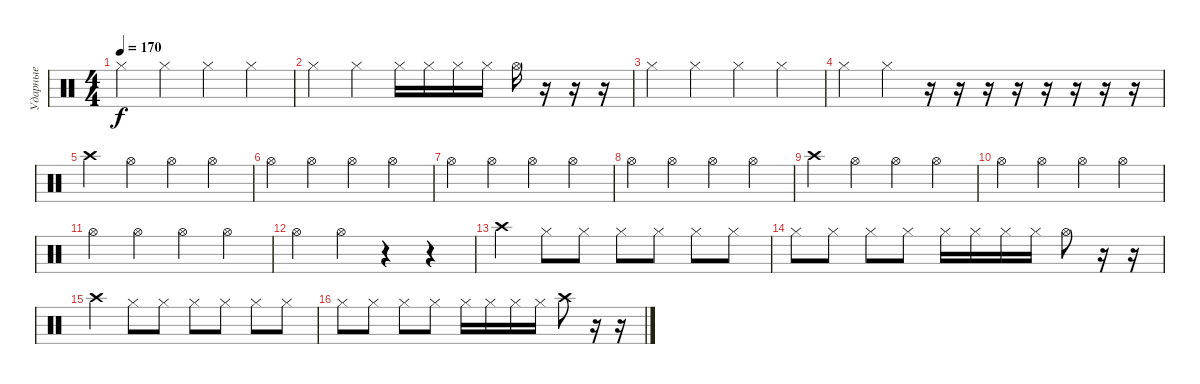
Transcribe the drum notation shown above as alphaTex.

\track ("Ударные" "Ударные") {instrument percussion}
\staff {score}
\articulation defaults
\ts (4 4)
\tempo 170
\clef neutral
\ks c "Hi-Hat (closed)".4{dy f} "Hi-Hat (closed)".4 "Hi-Hat (closed)".4 "Hi-Hat (closed)".4
|
"Hi-Hat (closed)".4 "Hi-Hat (closed)".4 "Hi-Hat (closed)".16 "Hi-Hat (closed)".16 "Hi-Hat (closed)".16 "Hi-Hat (closed)".16 "Hi-Hat (open)".16 r.16 r.16 r.16 |
"Hi-Hat (closed)".4 "Hi-Hat (closed)".4 "Hi-Hat (closed)".4 "Hi-Hat (closed)".4 |
"Hi-Hat (closed)".4 "Hi-Hat (closed)".4 r.16 r.16 r.16 r.16 r.16 r.16 r.16 r.16 |
"Crash high (hit)".4 "Hi-Hat (open)".4 "Hi-Hat (open)".4 "Hi-Hat (open)".4 |
"Hi-Hat (open)".4 "Hi-Hat (open)".4 "Hi-Hat (open)".4 "Hi-Hat (open)".4 |
"Hi-Hat (open)".4 "Hi-Hat (open)".4 "Hi-Hat (open)".4 "Hi-Hat (open)".4 |
"Hi-Hat (open)".4 "Hi-Hat (open)".4 "Hi-Hat (open)".4 "Hi-Hat (open)".4 |
"Crash high (hit)".4 "Hi-Hat (open)".4 "Hi-Hat (open)".4 "Hi-Hat (open)".4 |
"Hi-Hat (open)".4 "Hi-Hat (open)".4 "Hi-Hat (open)".4 "Hi-Hat (open)".4 |
"Hi-Hat (open)".4 "Hi-Hat (open)".4 "Hi-Hat (open)".4 "Hi-Hat (open)".4 |
"Hi-Hat (open)".4 "Hi-Hat (open)".4 r.4 r.4 |
"Crash high (hit)".4 "Hi-Hat (closed)".8 "Hi-Hat (closed)".8 "Hi-Hat (closed)".8 "Hi-Hat (closed)".8 "Hi-Hat (closed)".8 "Hi-Hat (closed)".8 |
"Hi-Hat (closed)".8 "Hi-Hat (closed)".8 "Hi-Hat (closed)".8 "Hi-Hat (closed)".8 "Hi-Hat (closed)".16 "Hi-Hat (closed)".16 "Hi-Hat (closed)".16 "Hi-Hat (closed)".16 "Hi-Hat (open)".8 r.16 r.16 |
"Crash high (hit)".4 "Hi-Hat (closed)".8 "Hi-Hat (closed)".8 "Hi-Hat (closed)".8 "Hi-Hat (closed)".8 "Hi-Hat (closed)".8 "Hi-Hat (closed)".8 |
"Hi-Hat (closed)".8 "Hi-Hat (closed)".8 "Hi-Hat (closed)".8 "Hi-Hat (closed)".8 "Hi-Hat (closed)".16 "Hi-Hat (closed)".16 "Hi-Hat (closed)".16 "Hi-Hat (closed)".16 "Crash high (hit)".8 r.16 r.16
